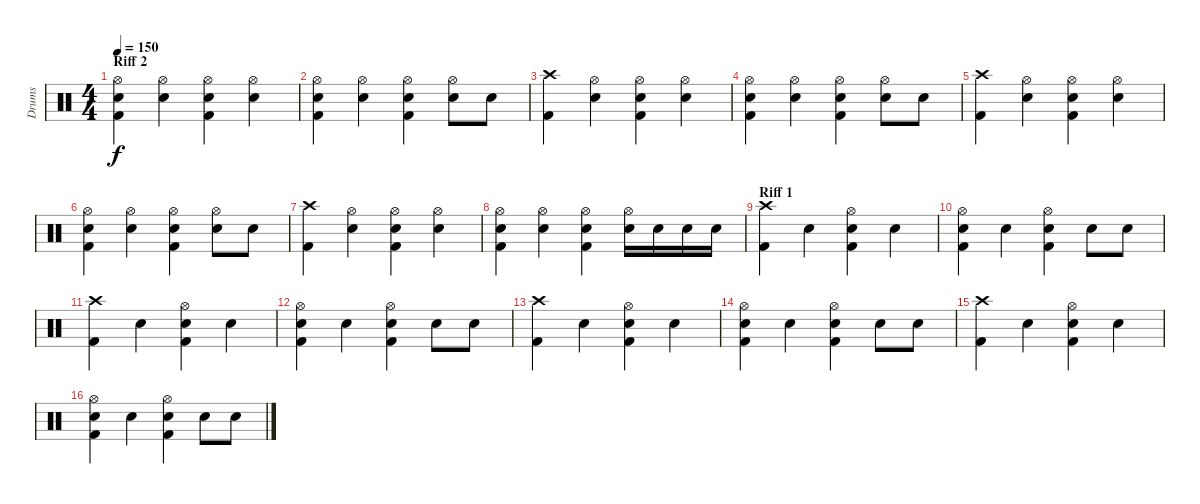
\track ("Drums" "Drums") {instrument percussion}
\staff {score}
\articulation defaults
\ts (4 4)
\section ("" "Riff 2")
\tempo 150
\clef neutral
\ks c
("Hi-Hat (open)" "Snare (hit) 2" "Kick (hit) 2").4{dy f} ("Hi-Hat (open)" "Snare (hit) 2").4 ("Hi-Hat (open)" "Snare (hit) 2" "Kick (hit) 2").4 ("Hi-Hat (open)" "Snare (hit) 2").4 |
("Hi-Hat (open)" "Snare (hit) 2" "Kick (hit) 2").4 ("Hi-Hat (open)" "Snare (hit) 2").4 ("Hi-Hat (open)" "Snare (hit) 2" "Kick (hit) 2").4 ("Hi-Hat (open)" "Snare (hit) 2").8 "Snare (hit) 2".8 |
("Crash high (hit)" "Kick (hit) 2").4 ("Hi-Hat (open)" "Snare (hit) 2").4 ("Hi-Hat (open)" "Snare (hit) 2" "Kick (hit) 2").4 ("Hi-Hat (open)" "Snare (hit) 2").4 |
("Hi-Hat (open)" "Snare (hit) 2" "Kick (hit) 2").4 ("Hi-Hat (open)" "Snare (hit) 2").4 ("Hi-Hat (open)" "Snare (hit) 2" "Kick (hit) 2").4 ("Hi-Hat (open)" "Snare (hit) 2").8 "Snare (hit) 2".8 |
("Crash high (hit)" "Kick (hit) 2").4 ("Hi-Hat (open)" "Snare (hit) 2").4 ("Hi-Hat (open)" "Snare (hit) 2" "Kick (hit) 2").4 ("Hi-Hat (open)" "Snare (hit) 2").4 |
("Hi-Hat (open)" "Snare (hit) 2" "Kick (hit) 2").4 ("Hi-Hat (open)" "Snare (hit) 2").4 ("Hi-Hat (open)" "Snare (hit) 2" "Kick (hit) 2").4 ("Hi-Hat (open)" "Snare (hit) 2").8 "Snare (hit) 2".8 |
("Crash high (hit)" "Kick (hit) 2").4 ("Hi-Hat (open)" "Snare (hit) 2").4 ("Hi-Hat (open)" "Snare (hit) 2" "Kick (hit) 2").4 ("Hi-Hat (open)" "Snare (hit) 2").4 |
("Hi-Hat (open)" "Snare (hit) 2" "Kick (hit) 2").4 ("Hi-Hat (open)" "Snare (hit) 2").4 ("Hi-Hat (open)" "Snare (hit) 2" "Kick (hit) 2").4 ("Hi-Hat (open)" "Snare (hit) 2").16 "Snare (hit) 2".16 "Snare (hit) 2".16 "Snare (hit) 2".16 |
\section ("" "Riff 1")
("Crash high (hit)" "Kick (hit) 2").4 "Snare (hit) 2".4 ("Hi-Hat (open)" "Snare (hit) 2" "Kick (hit) 2").4 "Snare (hit) 2".4 |
("Hi-Hat (open)" "Snare (hit) 2" "Kick (hit) 2").4 "Snare (hit) 2".4 ("Hi-Hat (open)" "Snare (hit) 2" "Kick (hit) 2").4 "Snare (hit) 2".8 "Snare (hit) 2".8 |
("Crash high (hit)" "Kick (hit) 2").4 "Snare (hit) 2".4 ("Hi-Hat (open)" "Snare (hit) 2" "Kick (hit) 2").4 "Snare (hit) 2".4 |
("Hi-Hat (open)" "Snare (hit) 2" "Kick (hit) 2").4 "Snare (hit) 2".4 ("Hi-Hat (open)" "Snare (hit) 2" "Kick (hit) 2").4 "Snare (hit) 2".8 "Snare (hit) 2".8 |
("Crash high (hit)" "Kick (hit) 2").4 "Snare (hit) 2".4 ("Hi-Hat (open)" "Snare (hit) 2" "Kick (hit) 2").4 "Snare (hit) 2".4 |
("Hi-Hat (open)" "Snare (hit) 2" "Kick (hit) 2").4 "Snare (hit) 2".4 ("Hi-Hat (open)" "Snare (hit) 2" "Kick (hit) 2").4 "Snare (hit) 2".8 "Snare (hit) 2".8 |
("Crash high (hit)" "Kick (hit) 2").4 "Snare (hit) 2".4 ("Hi-Hat (open)" "Snare (hit) 2" "Kick (hit) 2").4 "Snare (hit) 2".4 |
("Hi-Hat (open)" "Snare (hit) 2" "Kick (hit) 2").4 "Snare (hit) 2".4 ("Hi-Hat (open)" "Snare (hit) 2" "Kick (hit) 2").4 "Snare (hit) 2".8 "Snare (hit) 2".8
